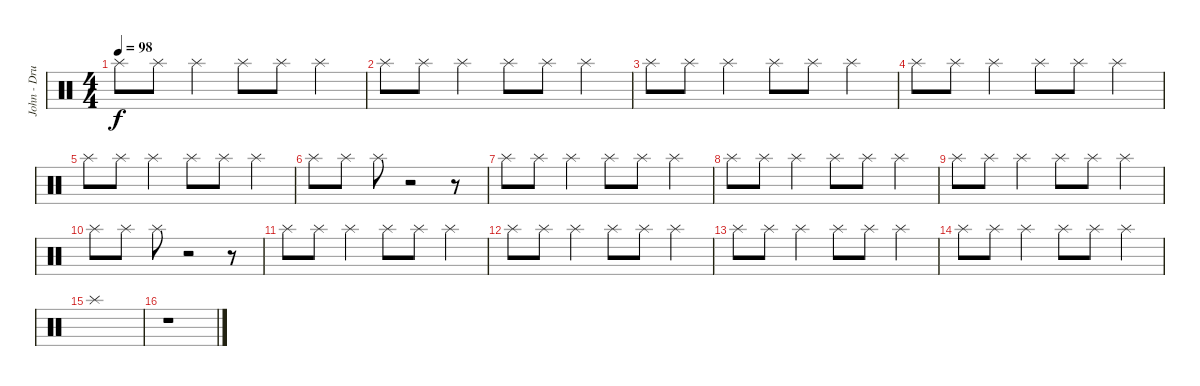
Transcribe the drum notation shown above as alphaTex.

\track ("John - Drums" "John - Dru") {instrument percussion}
\staff {score}
\articulation defaults
\ts (4 4)
\tempo 98
\clef neutral
\ks c "Splash (hit)".8{dy f} "Splash (hit)".8 "Splash (hit)".4 "Splash (hit)".8 "Splash (hit)".8 "Splash (hit)".4
|
"Splash (hit)".8 "Splash (hit)".8 "Splash (hit)".4 "Splash (hit)".8 "Splash (hit)".8 "Splash (hit)".4 |
"Splash (hit)".8 "Splash (hit)".8 "Splash (hit)".4 "Splash (hit)".8 "Splash (hit)".8 "Splash (hit)".4 |
"Splash (hit)".8 "Splash (hit)".8 "Splash (hit)".4 "Splash (hit)".8 "Splash (hit)".8 "Splash (hit)".4 |
"Splash (hit)".8 "Splash (hit)".8 "Splash (hit)".4 "Splash (hit)".8 "Splash (hit)".8 "Splash (hit)".4 |
"Splash (hit)".8 "Splash (hit)".8 "Splash (hit)".8 r.2 r.8 |
"Splash (hit)".8 "Splash (hit)".8 "Splash (hit)".4 "Splash (hit)".8 "Splash (hit)".8 "Splash (hit)".4 |
"Splash (hit)".8 "Splash (hit)".8 "Splash (hit)".4 "Splash (hit)".8 "Splash (hit)".8 "Splash (hit)".4 |
"Splash (hit)".8 "Splash (hit)".8 "Splash (hit)".4 "Splash (hit)".8 "Splash (hit)".8 "Splash (hit)".4 |
"Splash (hit)".8 "Splash (hit)".8 "Splash (hit)".8 r.2 r.8 |
"Splash (hit)".8 "Splash (hit)".8 "Splash (hit)".4 "Splash (hit)".8 "Splash (hit)".8 "Splash (hit)".4 |
"Splash (hit)".8 "Splash (hit)".8 "Splash (hit)".4 "Splash (hit)".8 "Splash (hit)".8 "Splash (hit)".4 |
"Splash (hit)".8 "Splash (hit)".8 "Splash (hit)".4 "Splash (hit)".8 "Splash (hit)".8 "Splash (hit)".4 |
"Splash (hit)".8 "Splash (hit)".8 "Splash (hit)".4 "Splash (hit)".8 "Splash (hit)".8 "Splash (hit)".4 |
"Splash (hit)".1 |
r.1
